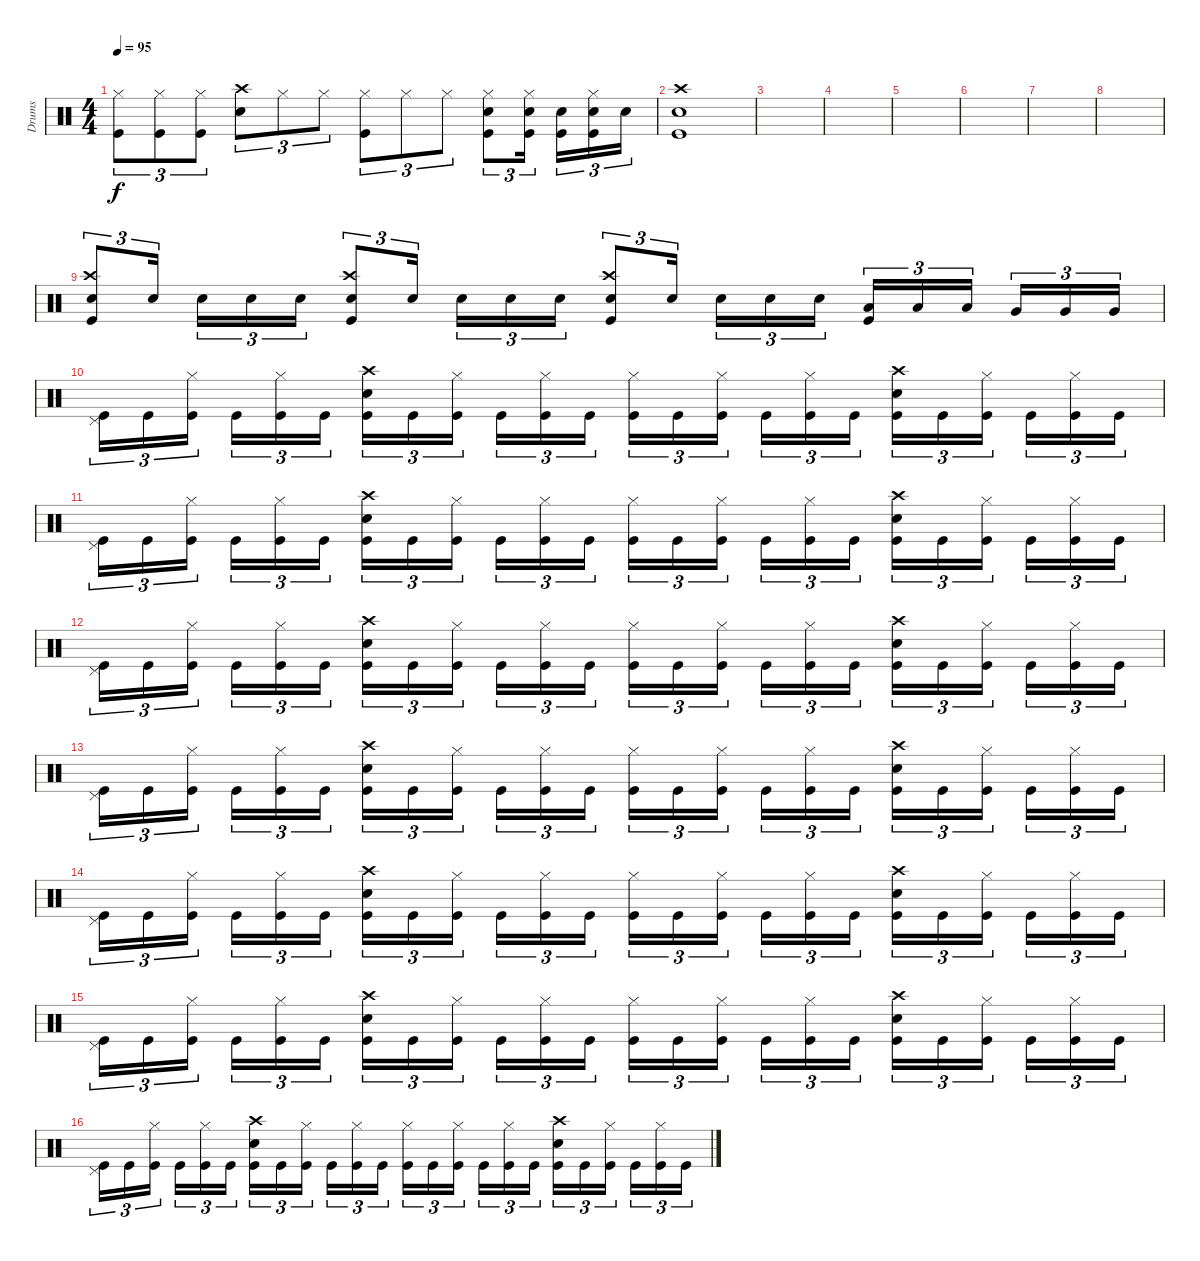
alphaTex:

\track ("Drums" "Drums") {instrument percussion}
\staff {score}
\articulation defaults
\ts (4 4)
\tempo 95
\clef neutral
\ks c
("Hi-Hat (closed)" "Kick (hit)").8{tu (3 2) dy f} ("Hi-Hat (closed)" "Kick (hit)").8{tu (3 2)} ("Hi-Hat (closed)" "Kick (hit)").8{tu (3 2)} ("Crash high (hit)" "Electric Snare (hit)").8{tu (3 2)} "Hi-Hat (closed)".8{tu (3 2)} "Hi-Hat (closed)".8{tu (3 2)} ("Hi-Hat (closed)" "Kick (hit)").8{tu (3 2)} "Hi-Hat (closed)".8{tu (3 2)} "Hi-Hat (closed)".8{tu (3 2)} ("Hi-Hat (closed)" "Electric Snare (hit)" "Kick (hit)").8{tu (3 2)} ("Hi-Hat (closed)" "Electric Snare (hit)" "Kick (hit)").16{tu (3 2)} ("Electric Snare (hit)" "Kick (hit)").16{tu (3 2)} ("Hi-Hat (closed)" "Electric Snare (hit)" "Kick (hit)").16{tu (3 2)} "Electric Snare (hit)".16{tu (3 2)} |
("Crash high (hit)" "Electric Snare (hit)" "Kick (hit)").1 |
|
|
|
|
|
|
("Crash high (hit)" "Electric Snare (hit)" "Kick (hit)").8{tu (3 2)} "Electric Snare (hit)".16{tu (3 2)} "Electric Snare (hit)".16{tu (3 2)} "Electric Snare (hit)".16{tu (3 2)} "Electric Snare (hit)".16{tu (3 2)} ("Crash high (hit)" "Electric Snare (hit)" "Kick (hit)").8{tu (3 2)} "Electric Snare (hit)".16{tu (3 2)} "Electric Snare (hit)".16{tu (3 2)} "Electric Snare (hit)".16{tu (3 2)} "Electric Snare (hit)".16{tu (3 2)} ("Crash high (hit)" "Electric Snare (hit)" "Kick (hit)").8{tu (3 2)} "Electric Snare (hit)".16{tu (3 2)} "Electric Snare (hit)".16{tu (3 2)} "Electric Snare (hit)".16{tu (3 2)} "Electric Snare (hit)".16{tu (3 2)} ("Low Tom (hit)" "Kick (hit)").16{tu (3 2)} "Low Tom (hit)".16{tu (3 2)} "Low Tom (hit)".16{tu (3 2)} "Very Low Tom (hit)".16{tu (3 2)} "Very Low Tom (hit)".16{tu (3 2)} "Very Low Tom (hit)".16{tu (3 2)} |
("Pedal Hi-Hat (hit)" "Kick (hit)").16{tu (3 2)} "Kick (hit)".16{tu (3 2)} ("Hi-Hat (closed)" "Kick (hit)").16{tu (3 2)} "Kick (hit)".16{tu (3 2)} ("Hi-Hat (closed)" "Kick (hit)").16{tu (3 2)} "Kick (hit)".16{tu (3 2)} ("Crash high (hit)" "Electric Snare (hit)" "Kick (hit)").16{tu (3 2)} "Kick (hit)".16{tu (3 2)} ("Hi-Hat (closed)" "Kick (hit)").16{tu (3 2)} "Kick (hit)".16{tu (3 2)} ("Hi-Hat (closed)" "Kick (hit)").16{tu (3 2)} "Kick (hit)".16{tu (3 2)} ("Hi-Hat (closed)" "Kick (hit)").16{tu (3 2)} "Kick (hit)".16{tu (3 2)} ("Hi-Hat (closed)" "Kick (hit)").16{tu (3 2)} "Kick (hit)".16{tu (3 2)} ("Hi-Hat (closed)" "Kick (hit)").16{tu (3 2)} "Kick (hit)".16{tu (3 2)} ("Crash high (hit)" "Electric Snare (hit)" "Kick (hit)").16{tu (3 2)} "Kick (hit)".16{tu (3 2)} ("Hi-Hat (closed)" "Kick (hit)").16{tu (3 2)} "Kick (hit)".16{tu (3 2)} ("Hi-Hat (closed)" "Kick (hit)").16{tu (3 2)} "Kick (hit)".16{tu (3 2)} |
("Pedal Hi-Hat (hit)" "Kick (hit)").16{tu (3 2)} "Kick (hit)".16{tu (3 2)} ("Hi-Hat (closed)" "Kick (hit)").16{tu (3 2)} "Kick (hit)".16{tu (3 2)} ("Hi-Hat (closed)" "Kick (hit)").16{tu (3 2)} "Kick (hit)".16{tu (3 2)} ("Crash high (hit)" "Electric Snare (hit)" "Kick (hit)").16{tu (3 2)} "Kick (hit)".16{tu (3 2)} ("Hi-Hat (closed)" "Kick (hit)").16{tu (3 2)} "Kick (hit)".16{tu (3 2)} ("Hi-Hat (closed)" "Kick (hit)").16{tu (3 2)} "Kick (hit)".16{tu (3 2)} ("Hi-Hat (closed)" "Kick (hit)").16{tu (3 2)} "Kick (hit)".16{tu (3 2)} ("Hi-Hat (closed)" "Kick (hit)").16{tu (3 2)} "Kick (hit)".16{tu (3 2)} ("Hi-Hat (closed)" "Kick (hit)").16{tu (3 2)} "Kick (hit)".16{tu (3 2)} ("Crash high (hit)" "Electric Snare (hit)" "Kick (hit)").16{tu (3 2)} "Kick (hit)".16{tu (3 2)} ("Hi-Hat (closed)" "Kick (hit)").16{tu (3 2)} "Kick (hit)".16{tu (3 2)} ("Hi-Hat (closed)" "Kick (hit)").16{tu (3 2)} "Kick (hit)".16{tu (3 2)} |
("Pedal Hi-Hat (hit)" "Kick (hit)").16{tu (3 2)} "Kick (hit)".16{tu (3 2)} ("Hi-Hat (closed)" "Kick (hit)").16{tu (3 2)} "Kick (hit)".16{tu (3 2)} ("Hi-Hat (closed)" "Kick (hit)").16{tu (3 2)} "Kick (hit)".16{tu (3 2)} ("Crash high (hit)" "Electric Snare (hit)" "Kick (hit)").16{tu (3 2)} "Kick (hit)".16{tu (3 2)} ("Hi-Hat (closed)" "Kick (hit)").16{tu (3 2)} "Kick (hit)".16{tu (3 2)} ("Hi-Hat (closed)" "Kick (hit)").16{tu (3 2)} "Kick (hit)".16{tu (3 2)} ("Hi-Hat (closed)" "Kick (hit)").16{tu (3 2)} "Kick (hit)".16{tu (3 2)} ("Hi-Hat (closed)" "Kick (hit)").16{tu (3 2)} "Kick (hit)".16{tu (3 2)} ("Hi-Hat (closed)" "Kick (hit)").16{tu (3 2)} "Kick (hit)".16{tu (3 2)} ("Crash high (hit)" "Electric Snare (hit)" "Kick (hit)").16{tu (3 2)} "Kick (hit)".16{tu (3 2)} ("Hi-Hat (closed)" "Kick (hit)").16{tu (3 2)} "Kick (hit)".16{tu (3 2)} ("Hi-Hat (closed)" "Kick (hit)").16{tu (3 2)} "Kick (hit)".16{tu (3 2)} |
("Pedal Hi-Hat (hit)" "Kick (hit)").16{tu (3 2)} "Kick (hit)".16{tu (3 2)} ("Hi-Hat (closed)" "Kick (hit)").16{tu (3 2)} "Kick (hit)".16{tu (3 2)} ("Hi-Hat (closed)" "Kick (hit)").16{tu (3 2)} "Kick (hit)".16{tu (3 2)} ("Crash high (hit)" "Electric Snare (hit)" "Kick (hit)").16{tu (3 2)} "Kick (hit)".16{tu (3 2)} ("Hi-Hat (closed)" "Kick (hit)").16{tu (3 2)} "Kick (hit)".16{tu (3 2)} ("Hi-Hat (closed)" "Kick (hit)").16{tu (3 2)} "Kick (hit)".16{tu (3 2)} ("Hi-Hat (closed)" "Kick (hit)").16{tu (3 2)} "Kick (hit)".16{tu (3 2)} ("Hi-Hat (closed)" "Kick (hit)").16{tu (3 2)} "Kick (hit)".16{tu (3 2)} ("Hi-Hat (closed)" "Kick (hit)").16{tu (3 2)} "Kick (hit)".16{tu (3 2)} ("Crash high (hit)" "Electric Snare (hit)" "Kick (hit)").16{tu (3 2)} "Kick (hit)".16{tu (3 2)} ("Hi-Hat (closed)" "Kick (hit)").16{tu (3 2)} "Kick (hit)".16{tu (3 2)} ("Hi-Hat (closed)" "Kick (hit)").16{tu (3 2)} "Kick (hit)".16{tu (3 2)} |
("Pedal Hi-Hat (hit)" "Kick (hit)").16{tu (3 2)} "Kick (hit)".16{tu (3 2)} ("Hi-Hat (closed)" "Kick (hit)").16{tu (3 2)} "Kick (hit)".16{tu (3 2)} ("Hi-Hat (closed)" "Kick (hit)").16{tu (3 2)} "Kick (hit)".16{tu (3 2)} ("Crash high (hit)" "Electric Snare (hit)" "Kick (hit)").16{tu (3 2)} "Kick (hit)".16{tu (3 2)} ("Hi-Hat (closed)" "Kick (hit)").16{tu (3 2)} "Kick (hit)".16{tu (3 2)} ("Hi-Hat (closed)" "Kick (hit)").16{tu (3 2)} "Kick (hit)".16{tu (3 2)} ("Hi-Hat (closed)" "Kick (hit)").16{tu (3 2)} "Kick (hit)".16{tu (3 2)} ("Hi-Hat (closed)" "Kick (hit)").16{tu (3 2)} "Kick (hit)".16{tu (3 2)} ("Hi-Hat (closed)" "Kick (hit)").16{tu (3 2)} "Kick (hit)".16{tu (3 2)} ("Crash high (hit)" "Electric Snare (hit)" "Kick (hit)").16{tu (3 2)} "Kick (hit)".16{tu (3 2)} ("Hi-Hat (closed)" "Kick (hit)").16{tu (3 2)} "Kick (hit)".16{tu (3 2)} ("Hi-Hat (closed)" "Kick (hit)").16{tu (3 2)} "Kick (hit)".16{tu (3 2)} |
("Pedal Hi-Hat (hit)" "Kick (hit)").16{tu (3 2)} "Kick (hit)".16{tu (3 2)} ("Hi-Hat (closed)" "Kick (hit)").16{tu (3 2)} "Kick (hit)".16{tu (3 2)} ("Hi-Hat (closed)" "Kick (hit)").16{tu (3 2)} "Kick (hit)".16{tu (3 2)} ("Crash high (hit)" "Electric Snare (hit)" "Kick (hit)").16{tu (3 2)} "Kick (hit)".16{tu (3 2)} ("Hi-Hat (closed)" "Kick (hit)").16{tu (3 2)} "Kick (hit)".16{tu (3 2)} ("Hi-Hat (closed)" "Kick (hit)").16{tu (3 2)} "Kick (hit)".16{tu (3 2)} ("Hi-Hat (closed)" "Kick (hit)").16{tu (3 2)} "Kick (hit)".16{tu (3 2)} ("Hi-Hat (closed)" "Kick (hit)").16{tu (3 2)} "Kick (hit)".16{tu (3 2)} ("Hi-Hat (closed)" "Kick (hit)").16{tu (3 2)} "Kick (hit)".16{tu (3 2)} ("Crash high (hit)" "Electric Snare (hit)" "Kick (hit)").16{tu (3 2)} "Kick (hit)".16{tu (3 2)} ("Hi-Hat (closed)" "Kick (hit)").16{tu (3 2)} "Kick (hit)".16{tu (3 2)} ("Hi-Hat (closed)" "Kick (hit)").16{tu (3 2)} "Kick (hit)".16{tu (3 2)} |
("Pedal Hi-Hat (hit)" "Kick (hit)").16{tu (3 2)} "Kick (hit)".16{tu (3 2)} ("Hi-Hat (closed)" "Kick (hit)").16{tu (3 2)} "Kick (hit)".16{tu (3 2)} ("Hi-Hat (closed)" "Kick (hit)").16{tu (3 2)} "Kick (hit)".16{tu (3 2)} ("Crash high (hit)" "Electric Snare (hit)" "Kick (hit)").16{tu (3 2)} "Kick (hit)".16{tu (3 2)} ("Hi-Hat (closed)" "Kick (hit)").16{tu (3 2)} "Kick (hit)".16{tu (3 2)} ("Hi-Hat (closed)" "Kick (hit)").16{tu (3 2)} "Kick (hit)".16{tu (3 2)} ("Hi-Hat (closed)" "Kick (hit)").16{tu (3 2)} "Kick (hit)".16{tu (3 2)} ("Hi-Hat (closed)" "Kick (hit)").16{tu (3 2)} "Kick (hit)".16{tu (3 2)} ("Hi-Hat (closed)" "Kick (hit)").16{tu (3 2)} "Kick (hit)".16{tu (3 2)} ("Crash high (hit)" "Electric Snare (hit)" "Kick (hit)").16{tu (3 2)} "Kick (hit)".16{tu (3 2)} ("Hi-Hat (closed)" "Kick (hit)").16{tu (3 2)} "Kick (hit)".16{tu (3 2)} ("Hi-Hat (closed)" "Kick (hit)").16{tu (3 2)} "Kick (hit)".16{tu (3 2)}
